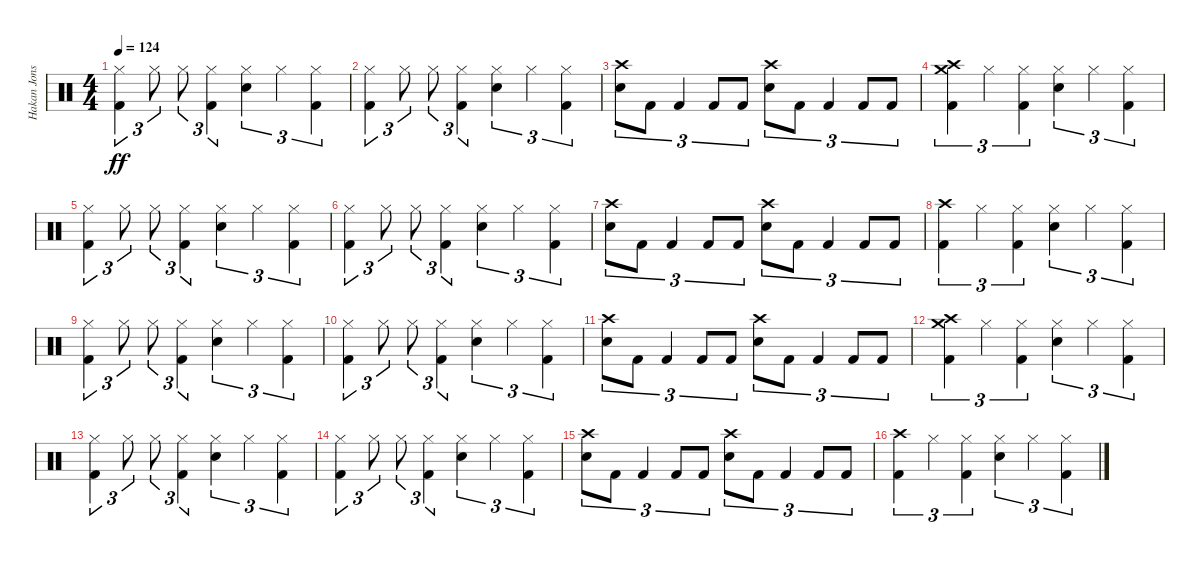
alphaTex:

\track ("Hakan Jonsson" "Hakan Jons") {instrument percussion}
\staff {score}
\articulation defaults
\ts (4 4)
\tempo 124
\clef neutral
\ks c
("Hi-Hat (closed)" "Kick (hit) 2").4{tu (3 2) dy ff} "Hi-Hat (closed)".8{tu (3 2)} "Hi-Hat (closed)".8{tu (3 2)} ("Hi-Hat (closed)" "Kick (hit) 2").4{tu (3 2)} ("Hi-Hat (closed)" "Electric Snare (hit)").4{tu (3 2)} "Hi-Hat (closed)".4{tu (3 2)} ("Hi-Hat (closed)" "Kick (hit) 2").4{tu (3 2)} |
("Hi-Hat (closed)" "Kick (hit) 2").4{tu (3 2)} "Hi-Hat (closed)".8{tu (3 2)} "Hi-Hat (closed)".8{tu (3 2)} ("Hi-Hat (closed)" "Kick (hit) 2").4{tu (3 2)} ("Hi-Hat (closed)" "Electric Snare (hit)").4{tu (3 2)} "Hi-Hat (closed)".4{tu (3 2)} ("Hi-Hat (closed)" "Kick (hit) 2").4{tu (3 2)} |
("Crash high (hit)" "Electric Snare (hit)").8{tu (3 2)} "Kick (hit) 2".8{tu (3 2)} "Kick (hit) 2".4{tu (3 2)} "Kick (hit) 2".8{tu (3 2)} "Kick (hit) 2".8{tu (3 2)} ("Crash high (hit)" "Electric Snare (hit)").8{tu (3 2)} "Kick (hit) 2".8{tu (3 2)} "Kick (hit) 2".4{tu (3 2)} "Kick (hit) 2".8{tu (3 2)} "Kick (hit) 2".8{tu (3 2)} |
("Crash medium (hit)" "Crash high (hit)" "Kick (hit) 2").4{tu (3 2)} "Hi-Hat (closed)".4{tu (3 2)} ("Hi-Hat (closed)" "Kick (hit) 2").4{tu (3 2)} ("Hi-Hat (closed)" "Electric Snare (hit)").4{tu (3 2)} "Hi-Hat (closed)".4{tu (3 2)} ("Hi-Hat (closed)" "Kick (hit) 2").4{tu (3 2)} |
("Hi-Hat (closed)" "Kick (hit) 2").4{tu (3 2)} "Hi-Hat (closed)".8{tu (3 2)} "Hi-Hat (closed)".8{tu (3 2)} ("Hi-Hat (closed)" "Kick (hit) 2").4{tu (3 2)} ("Hi-Hat (closed)" "Electric Snare (hit)").4{tu (3 2)} "Hi-Hat (closed)".4{tu (3 2)} ("Hi-Hat (closed)" "Kick (hit) 2").4{tu (3 2)} |
("Hi-Hat (closed)" "Kick (hit) 2").4{tu (3 2)} "Hi-Hat (closed)".8{tu (3 2)} "Hi-Hat (closed)".8{tu (3 2)} ("Hi-Hat (closed)" "Kick (hit) 2").4{tu (3 2)} ("Hi-Hat (closed)" "Electric Snare (hit)").4{tu (3 2)} "Hi-Hat (closed)".4{tu (3 2)} ("Hi-Hat (closed)" "Kick (hit) 2").4{tu (3 2)} |
("Crash high (hit)" "Electric Snare (hit)").8{tu (3 2)} "Kick (hit) 2".8{tu (3 2)} "Kick (hit) 2".4{tu (3 2)} "Kick (hit) 2".8{tu (3 2)} "Kick (hit) 2".8{tu (3 2)} ("Crash high (hit)" "Electric Snare (hit)").8{tu (3 2)} "Kick (hit) 2".8{tu (3 2)} "Kick (hit) 2".4{tu (3 2)} "Kick (hit) 2".8{tu (3 2)} "Kick (hit) 2".8{tu (3 2)} |
("Crash high (hit)" "Kick (hit) 2").4{tu (3 2)} "Hi-Hat (closed)".4{tu (3 2)} ("Hi-Hat (closed)" "Kick (hit) 2").4{tu (3 2)} ("Hi-Hat (closed)" "Electric Snare (hit)").4{tu (3 2)} "Hi-Hat (closed)".4{tu (3 2)} ("Hi-Hat (closed)" "Kick (hit) 2").4{tu (3 2)} |
("Hi-Hat (closed)" "Kick (hit) 2").4{tu (3 2)} "Hi-Hat (closed)".8{tu (3 2)} "Hi-Hat (closed)".8{tu (3 2)} ("Hi-Hat (closed)" "Kick (hit) 2").4{tu (3 2)} ("Hi-Hat (closed)" "Electric Snare (hit)").4{tu (3 2)} "Hi-Hat (closed)".4{tu (3 2)} ("Hi-Hat (closed)" "Kick (hit) 2").4{tu (3 2)} |
("Hi-Hat (closed)" "Kick (hit) 2").4{tu (3 2)} "Hi-Hat (closed)".8{tu (3 2)} "Hi-Hat (closed)".8{tu (3 2)} ("Hi-Hat (closed)" "Kick (hit) 2").4{tu (3 2)} ("Hi-Hat (closed)" "Electric Snare (hit)").4{tu (3 2)} "Hi-Hat (closed)".4{tu (3 2)} ("Hi-Hat (closed)" "Kick (hit) 2").4{tu (3 2)} |
("Crash high (hit)" "Electric Snare (hit)").8{tu (3 2)} "Kick (hit) 2".8{tu (3 2)} "Kick (hit) 2".4{tu (3 2)} "Kick (hit) 2".8{tu (3 2)} "Kick (hit) 2".8{tu (3 2)} ("Crash high (hit)" "Electric Snare (hit)").8{tu (3 2)} "Kick (hit) 2".8{tu (3 2)} "Kick (hit) 2".4{tu (3 2)} "Kick (hit) 2".8{tu (3 2)} "Kick (hit) 2".8{tu (3 2)} |
("Crash medium (hit)" "Crash high (hit)" "Kick (hit) 2").4{tu (3 2)} "Hi-Hat (closed)".4{tu (3 2)} ("Hi-Hat (closed)" "Kick (hit) 2").4{tu (3 2)} ("Hi-Hat (closed)" "Electric Snare (hit)").4{tu (3 2)} "Hi-Hat (closed)".4{tu (3 2)} ("Hi-Hat (closed)" "Kick (hit) 2").4{tu (3 2)} |
("Hi-Hat (closed)" "Kick (hit) 2").4{tu (3 2)} "Hi-Hat (closed)".8{tu (3 2)} "Hi-Hat (closed)".8{tu (3 2)} ("Hi-Hat (closed)" "Kick (hit) 2").4{tu (3 2)} ("Hi-Hat (closed)" "Electric Snare (hit)").4{tu (3 2)} "Hi-Hat (closed)".4{tu (3 2)} ("Hi-Hat (closed)" "Kick (hit) 2").4{tu (3 2)} |
("Hi-Hat (closed)" "Kick (hit) 2").4{tu (3 2)} "Hi-Hat (closed)".8{tu (3 2)} "Hi-Hat (closed)".8{tu (3 2)} ("Hi-Hat (closed)" "Kick (hit) 2").4{tu (3 2)} ("Hi-Hat (closed)" "Electric Snare (hit)").4{tu (3 2)} "Hi-Hat (closed)".4{tu (3 2)} ("Hi-Hat (closed)" "Kick (hit) 2").4{tu (3 2)} |
("Crash high (hit)" "Electric Snare (hit)").8{tu (3 2)} "Kick (hit) 2".8{tu (3 2)} "Kick (hit) 2".4{tu (3 2)} "Kick (hit) 2".8{tu (3 2)} "Kick (hit) 2".8{tu (3 2)} ("Crash high (hit)" "Electric Snare (hit)").8{tu (3 2)} "Kick (hit) 2".8{tu (3 2)} "Kick (hit) 2".4{tu (3 2)} "Kick (hit) 2".8{tu (3 2)} "Kick (hit) 2".8{tu (3 2)} |
("Crash high (hit)" "Kick (hit) 2").4{tu (3 2)} "Hi-Hat (closed)".4{tu (3 2)} ("Hi-Hat (closed)" "Kick (hit) 2").4{tu (3 2)} ("Hi-Hat (closed)" "Electric Snare (hit)").4{tu (3 2)} "Hi-Hat (closed)".4{tu (3 2)} ("Hi-Hat (closed)" "Kick (hit) 2").4{tu (3 2)}
